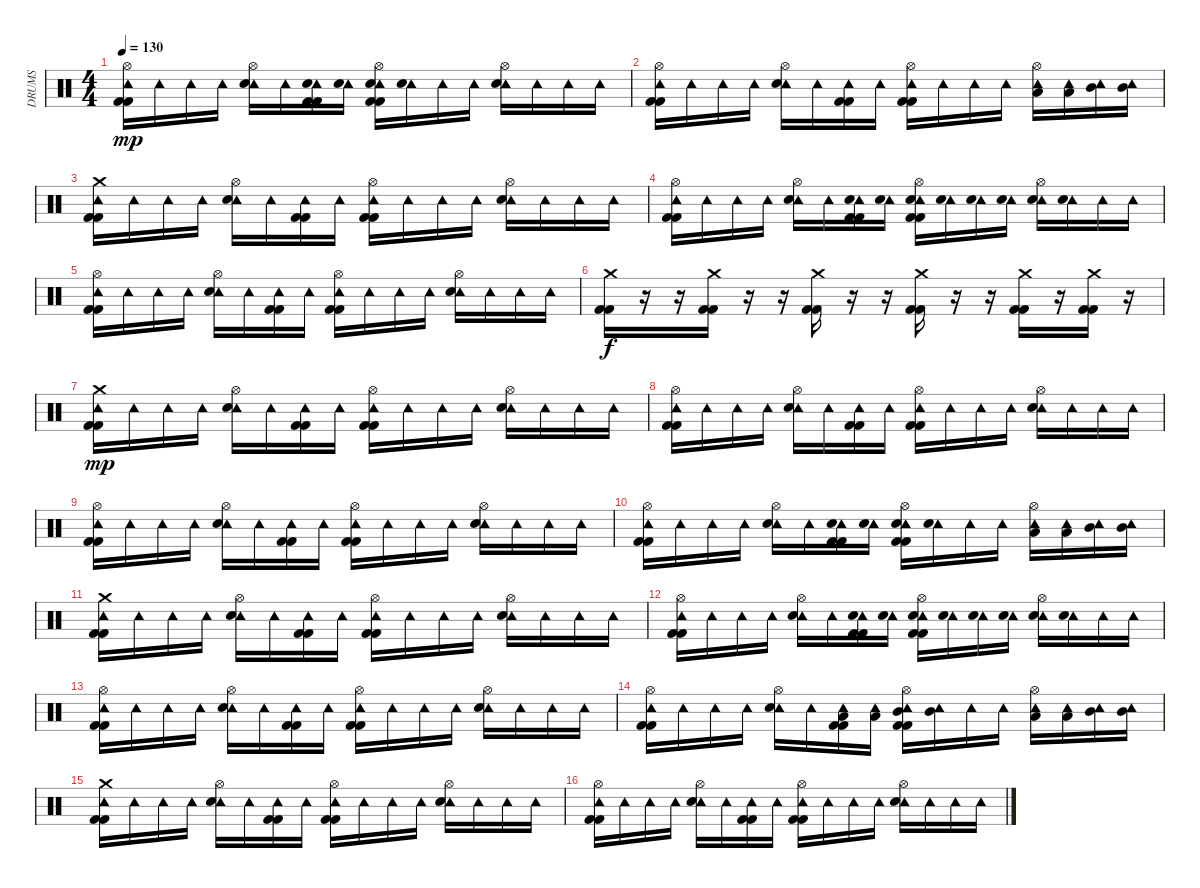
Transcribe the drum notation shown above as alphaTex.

\track ("DRUMS" "DRUMS") {instrument percussion}
\staff {score}
\articulation defaults
\ts (4 4)
\tempo 130
\clef neutral
\ks c
("Hi-Hat (open)" "Tambourine (hit)" "Kick (hit) 2" "Kick (hit) 2").16{dy mp} "Tambourine (hit)".16 "Tambourine (hit)".16 "Tambourine (hit)".16 ("Hi-Hat (open)" "Tambourine (hit)" "Snare (hit) 2").16 "Tambourine (hit)".16 ("Tambourine (hit)" "Electric Snare (hit)" "Kick (hit) 2" "Kick (hit) 2").16 ("Tambourine (hit)" "Electric Snare (hit)").16 ("Hi-Hat (open)" "Tambourine (hit)" "Electric Snare (hit)" "Kick (hit) 2" "Kick (hit) 2").16 ("Tambourine (hit)" "Snare (hit) 2").16 "Tambourine (hit)".16 "Tambourine (hit)".16 ("Hi-Hat (open)" "Tambourine (hit)" "Snare (hit) 2").16 "Tambourine (hit)".16 "Tambourine (hit)".16 "Tambourine (hit)".16 |
("Hi-Hat (open)" "Tambourine (hit)" "Kick (hit) 2" "Kick (hit) 2").16 "Tambourine (hit)".16 "Tambourine (hit)".16 "Tambourine (hit)".16 ("Hi-Hat (open)" "Tambourine (hit)" "Snare (hit) 2").16 "Tambourine (hit)".16 ("Tambourine (hit)" "Kick (hit) 2" "Kick (hit) 2").16 "Tambourine (hit)".16 ("Hi-Hat (open)" "Tambourine (hit)" "Kick (hit) 2" "Kick (hit) 2").16 "Tambourine (hit)".16 "Tambourine (hit)".16 "Tambourine (hit)".16 ("Hi-Hat (open)" "Tambourine (hit)" "Low Tom (hit)").16 ("Tambourine (hit)" "Low Tom (hit)").16 ("Tambourine (hit)" "Mid Tom (hit)").16 ("Tambourine (hit)" "Mid Tom (hit)").16 |
("Crash medium (hit)" "Tambourine (hit)" "Kick (hit) 2" "Kick (hit) 2").16 "Tambourine (hit)".16 "Tambourine (hit)".16 "Tambourine (hit)".16 ("Hi-Hat (open)" "Tambourine (hit)" "Snare (hit) 2").16 "Tambourine (hit)".16 ("Tambourine (hit)" "Kick (hit) 2" "Kick (hit) 2").16 "Tambourine (hit)".16 ("Hi-Hat (open)" "Tambourine (hit)" "Kick (hit) 2" "Kick (hit) 2").16 "Tambourine (hit)".16 "Tambourine (hit)".16 "Tambourine (hit)".16 ("Hi-Hat (open)" "Tambourine (hit)" "Snare (hit) 2").16 "Tambourine (hit)".16 "Tambourine (hit)".16 "Tambourine (hit)".16 |
("Hi-Hat (open)" "Tambourine (hit)" "Kick (hit) 2" "Kick (hit) 2").16 "Tambourine (hit)".16 "Tambourine (hit)".16 "Tambourine (hit)".16 ("Hi-Hat (open)" "Tambourine (hit)" "Snare (hit) 2").16 "Tambourine (hit)".16 ("Tambourine (hit)" "Electric Snare (hit)" "Kick (hit) 2" "Kick (hit) 2").16 ("Tambourine (hit)" "Electric Snare (hit)").16 ("Hi-Hat (open)" "Tambourine (hit)" "Electric Snare (hit)" "Kick (hit) 2" "Kick (hit) 2").16 ("Tambourine (hit)" "Snare (hit) 2").16 ("Tambourine (hit)" "Electric Snare (hit)").16 ("Tambourine (hit)" "Electric Snare (hit)").16 ("Hi-Hat (open)" "Tambourine (hit)" "Electric Snare (hit)").16 ("Tambourine (hit)" "Snare (hit) 2").16 "Tambourine (hit)".16 "Tambourine (hit)".16 |
("Hi-Hat (open)" "Tambourine (hit)" "Kick (hit) 2" "Kick (hit) 2").16 "Tambourine (hit)".16 "Tambourine (hit)".16 "Tambourine (hit)".16 ("Hi-Hat (open)" "Tambourine (hit)" "Snare (hit) 2").16 "Tambourine (hit)".16 ("Tambourine (hit)" "Kick (hit) 2" "Kick (hit) 2").16 "Tambourine (hit)".16 ("Hi-Hat (open)" "Tambourine (hit)" "Kick (hit) 2" "Kick (hit) 2").16 "Tambourine (hit)".16 "Tambourine (hit)".16 "Tambourine (hit)".16 ("Hi-Hat (open)" "Tambourine (hit)" "Snare (hit) 2").16 "Tambourine (hit)".16 "Tambourine (hit)".16 "Tambourine (hit)".16 |
("Crash medium (hit)" "Kick (hit) 2" "Kick (hit) 2").16{dy f} r.16 r.16 ("Crash medium (hit)" "Kick (hit) 2" "Kick (hit) 2").16 r.16 r.16 ("Crash medium (hit)" "Kick (hit) 2" "Kick (hit) 2").16 r.16 r.16 ("Crash medium (hit)" "Kick (hit) 2" "Kick (hit) 2").16 r.16 r.16 ("Crash medium (hit)" "Kick (hit) 2" "Kick (hit) 2").16 r.16 ("Crash medium (hit)" "Kick (hit) 2" "Kick (hit) 2").16 r.16 |
("Crash medium (hit)" "Tambourine (hit)" "Kick (hit) 2" "Kick (hit) 2").16{dy mp} "Tambourine (hit)".16 "Tambourine (hit)".16 "Tambourine (hit)".16 ("Hi-Hat (open)" "Tambourine (hit)" "Snare (hit) 2").16 "Tambourine (hit)".16 ("Tambourine (hit)" "Kick (hit) 2" "Kick (hit) 2").16 "Tambourine (hit)".16 ("Hi-Hat (open)" "Tambourine (hit)" "Kick (hit) 2" "Kick (hit) 2").16 "Tambourine (hit)".16 "Tambourine (hit)".16 "Tambourine (hit)".16 ("Hi-Hat (open)" "Tambourine (hit)" "Snare (hit) 2").16 "Tambourine (hit)".16 "Tambourine (hit)".16 "Tambourine (hit)".16 |
("Hi-Hat (open)" "Tambourine (hit)" "Kick (hit) 2" "Kick (hit) 2").16 "Tambourine (hit)".16 "Tambourine (hit)".16 "Tambourine (hit)".16 ("Hi-Hat (open)" "Tambourine (hit)" "Snare (hit) 2").16 "Tambourine (hit)".16 ("Tambourine (hit)" "Kick (hit) 2" "Kick (hit) 2").16 "Tambourine (hit)".16 ("Hi-Hat (open)" "Tambourine (hit)" "Kick (hit) 2" "Kick (hit) 2").16 "Tambourine (hit)".16 "Tambourine (hit)".16 "Tambourine (hit)".16 ("Hi-Hat (open)" "Tambourine (hit)" "Snare (hit) 2").16 "Tambourine (hit)".16 "Tambourine (hit)".16 "Tambourine (hit)".16 |
("Hi-Hat (open)" "Tambourine (hit)" "Kick (hit) 2" "Kick (hit) 2").16 "Tambourine (hit)".16 "Tambourine (hit)".16 "Tambourine (hit)".16 ("Hi-Hat (open)" "Tambourine (hit)" "Snare (hit) 2").16 "Tambourine (hit)".16 ("Tambourine (hit)" "Kick (hit) 2" "Kick (hit) 2").16 "Tambourine (hit)".16 ("Hi-Hat (open)" "Tambourine (hit)" "Kick (hit) 2" "Kick (hit) 2").16 "Tambourine (hit)".16 "Tambourine (hit)".16 "Tambourine (hit)".16 ("Hi-Hat (open)" "Tambourine (hit)" "Snare (hit) 2").16 "Tambourine (hit)".16 "Tambourine (hit)".16 "Tambourine (hit)".16 |
("Hi-Hat (open)" "Tambourine (hit)" "Kick (hit) 2" "Kick (hit) 2").16 "Tambourine (hit)".16 "Tambourine (hit)".16 "Tambourine (hit)".16 ("Hi-Hat (open)" "Tambourine (hit)" "Snare (hit) 2").16 "Tambourine (hit)".16 ("Tambourine (hit)" "Electric Snare (hit)" "Kick (hit) 2" "Kick (hit) 2").16 ("Tambourine (hit)" "Electric Snare (hit)").16 ("Hi-Hat (open)" "Tambourine (hit)" "Electric Snare (hit)" "Kick (hit) 2" "Kick (hit) 2").16 ("Tambourine (hit)" "Snare (hit) 2").16 "Tambourine (hit)".16 "Tambourine (hit)".16 ("Hi-Hat (open)" "Tambourine (hit)" "Low Tom (hit)").16 ("Tambourine (hit)" "Low Tom (hit)").16 ("Tambourine (hit)" "Mid Tom (hit)").16 ("Tambourine (hit)" "Mid Tom (hit)").16 |
("Crash medium (hit)" "Tambourine (hit)" "Kick (hit) 2" "Kick (hit) 2").16 "Tambourine (hit)".16 "Tambourine (hit)".16 "Tambourine (hit)".16 ("Hi-Hat (open)" "Tambourine (hit)" "Snare (hit) 2").16 "Tambourine (hit)".16 ("Tambourine (hit)" "Kick (hit) 2" "Kick (hit) 2").16 "Tambourine (hit)".16 ("Hi-Hat (open)" "Tambourine (hit)" "Kick (hit) 2" "Kick (hit) 2").16 "Tambourine (hit)".16 "Tambourine (hit)".16 "Tambourine (hit)".16 ("Hi-Hat (open)" "Tambourine (hit)" "Snare (hit) 2").16 "Tambourine (hit)".16 "Tambourine (hit)".16 "Tambourine (hit)".16 |
("Hi-Hat (open)" "Tambourine (hit)" "Kick (hit) 2" "Kick (hit) 2").16 "Tambourine (hit)".16 "Tambourine (hit)".16 "Tambourine (hit)".16 ("Hi-Hat (open)" "Tambourine (hit)" "Snare (hit) 2").16 "Tambourine (hit)".16 ("Tambourine (hit)" "Electric Snare (hit)" "Kick (hit) 2" "Kick (hit) 2").16 ("Tambourine (hit)" "Electric Snare (hit)").16 ("Hi-Hat (open)" "Tambourine (hit)" "Electric Snare (hit)" "Kick (hit) 2" "Kick (hit) 2").16 ("Tambourine (hit)" "Snare (hit) 2").16 ("Tambourine (hit)" "Electric Snare (hit)").16 ("Tambourine (hit)" "Electric Snare (hit)").16 ("Hi-Hat (open)" "Tambourine (hit)" "Electric Snare (hit)").16 ("Tambourine (hit)" "Snare (hit) 2").16 "Tambourine (hit)".16 "Tambourine (hit)".16 |
("Hi-Hat (open)" "Tambourine (hit)" "Kick (hit) 2" "Kick (hit) 2").16 "Tambourine (hit)".16 "Tambourine (hit)".16 "Tambourine (hit)".16 ("Hi-Hat (open)" "Tambourine (hit)" "Snare (hit) 2").16 "Tambourine (hit)".16 ("Tambourine (hit)" "Kick (hit) 2" "Kick (hit) 2").16 "Tambourine (hit)".16 ("Hi-Hat (open)" "Tambourine (hit)" "Kick (hit) 2" "Kick (hit) 2").16 "Tambourine (hit)".16 "Tambourine (hit)".16 "Tambourine (hit)".16 ("Hi-Hat (open)" "Tambourine (hit)" "Snare (hit) 2").16 "Tambourine (hit)".16 "Tambourine (hit)".16 "Tambourine (hit)".16 |
("Hi-Hat (open)" "Tambourine (hit)" "Kick (hit) 2" "Kick (hit) 2").16 "Tambourine (hit)".16 "Tambourine (hit)".16 "Tambourine (hit)".16 ("Hi-Hat (open)" "Tambourine (hit)" "Snare (hit) 2").16 "Tambourine (hit)".16 ("Tambourine (hit)" "Low Tom (hit)" "Kick (hit) 2" "Kick (hit) 2").16 ("Tambourine (hit)" "Low Tom (hit)").16 ("Hi-Hat (open)" "Tambourine (hit)" "Mid Tom (hit)" "Kick (hit) 2" "Kick (hit) 2").16 ("Tambourine (hit)" "Mid Tom (hit)").16 "Tambourine (hit)".16 "Tambourine (hit)".16 ("Hi-Hat (open)" "Tambourine (hit)" "Low Tom (hit)").16 ("Tambourine (hit)" "Low Tom (hit)").16 ("Tambourine (hit)" "Mid Tom (hit)").16 ("Tambourine (hit)" "Mid Tom (hit)").16 |
("Crash medium (hit)" "Tambourine (hit)" "Kick (hit) 2" "Kick (hit) 2").16 "Tambourine (hit)".16 "Tambourine (hit)".16 "Tambourine (hit)".16 ("Hi-Hat (open)" "Tambourine (hit)" "Snare (hit) 2").16 "Tambourine (hit)".16 ("Tambourine (hit)" "Kick (hit) 2" "Kick (hit) 2").16 "Tambourine (hit)".16 ("Hi-Hat (open)" "Tambourine (hit)" "Kick (hit) 2" "Kick (hit) 2").16 "Tambourine (hit)".16 "Tambourine (hit)".16 "Tambourine (hit)".16 ("Hi-Hat (open)" "Tambourine (hit)" "Snare (hit) 2").16 "Tambourine (hit)".16 "Tambourine (hit)".16 "Tambourine (hit)".16 |
("Hi-Hat (open)" "Tambourine (hit)" "Kick (hit) 2" "Kick (hit) 2").16 "Tambourine (hit)".16 "Tambourine (hit)".16 "Tambourine (hit)".16 ("Hi-Hat (open)" "Tambourine (hit)" "Snare (hit) 2").16 "Tambourine (hit)".16 ("Tambourine (hit)" "Kick (hit) 2" "Kick (hit) 2").16 "Tambourine (hit)".16 ("Hi-Hat (open)" "Tambourine (hit)" "Kick (hit) 2" "Kick (hit) 2").16 "Tambourine (hit)".16 "Tambourine (hit)".16 "Tambourine (hit)".16 ("Hi-Hat (open)" "Tambourine (hit)" "Snare (hit) 2").16 "Tambourine (hit)".16 "Tambourine (hit)".16 "Tambourine (hit)".16
